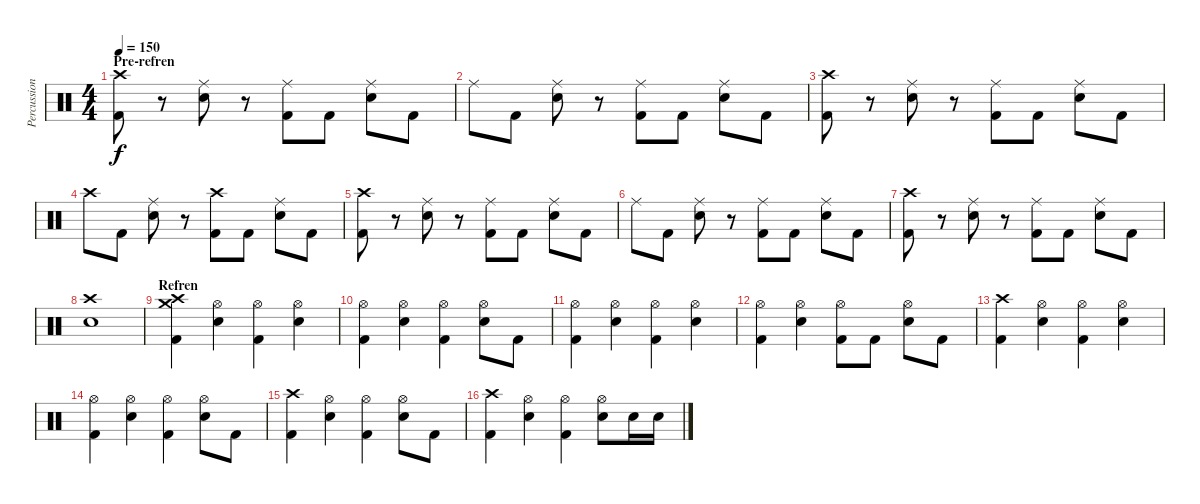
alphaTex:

\track ("Percussion" "Percussion") {instrument percussion}
\staff {score}
\articulation defaults
\ts (4 4)
\section ("" "Pre-refren")
\tempo 150
\clef neutral
\ks c
("Kick (hit) 2" "Crash high (hit)").8{dy f} r.8 ("Electric Snare (hit)" "Ride (middle)").8 r.8 ("Kick (hit) 2" "Ride (middle)").8 "Kick (hit) 2".8 ("Electric Snare (hit)" "Ride (middle)").8 "Kick (hit) 2".8 |
"Ride (middle)".8 "Kick (hit) 2".8 ("Electric Snare (hit)" "Ride (middle)").8 r.8 ("Kick (hit) 2" "Ride (middle)").8 "Kick (hit) 2".8 ("Electric Snare (hit)" "Ride (middle)").8 "Kick (hit) 2".8 |
("Kick (hit) 2" "Crash high (hit)").8 r.8 ("Electric Snare (hit)" "Ride (middle)").8 r.8 ("Kick (hit) 2" "Ride (middle)").8 "Kick (hit) 2".8 ("Electric Snare (hit)" "Ride (middle)").8 "Kick (hit) 2".8 |
"Crash high (hit)".8 "Kick (hit) 2".8 ("Electric Snare (hit)" "Ride (middle)").8 r.8 ("Kick (hit) 2" "Crash high (hit)").8 "Kick (hit) 2".8 ("Electric Snare (hit)" "Ride (middle)").8 "Kick (hit) 2".8 |
("Kick (hit) 2" "Crash high (hit)").8 r.8 ("Electric Snare (hit)" "Ride (middle)").8 r.8 ("Kick (hit) 2" "Ride (middle)").8 "Kick (hit) 2".8 ("Electric Snare (hit)" "Ride (middle)").8 "Kick (hit) 2".8 |
"Ride (middle)".8 "Kick (hit) 2".8 ("Electric Snare (hit)" "Ride (middle)").8 r.8 ("Kick (hit) 2" "Ride (middle)").8 "Kick (hit) 2".8 ("Electric Snare (hit)" "Ride (middle)").8 "Kick (hit) 2".8 |
("Kick (hit) 2" "Crash high (hit)").8 r.8 ("Electric Snare (hit)" "Ride (middle)").8 r.8 ("Kick (hit) 2" "Ride (middle)").8 "Kick (hit) 2".8 ("Electric Snare (hit)" "Ride (middle)").8 "Kick (hit) 2".8 |
("Electric Snare (hit)" "Crash high (hit)").1 |
\section ("" "Refren")
("Crash high (hit)" "Kick (hit) 2" "Crash medium (hit)").4 ("Hi-Hat (open)" "Electric Snare (hit)").4 ("Hi-Hat (open)" "Kick (hit) 2").4 ("Hi-Hat (open)" "Electric Snare (hit)").4 |
("Hi-Hat (open)" "Kick (hit) 2").4 ("Hi-Hat (open)" "Electric Snare (hit)").4 ("Hi-Hat (open)" "Kick (hit) 2").4 ("Hi-Hat (open)" "Electric Snare (hit)").8 "Kick (hit) 2".8 |
("Hi-Hat (open)" "Kick (hit) 2").4 ("Hi-Hat (open)" "Electric Snare (hit)").4 ("Hi-Hat (open)" "Kick (hit) 2").4 ("Hi-Hat (open)" "Electric Snare (hit)").4 |
("Hi-Hat (open)" "Kick (hit) 2").4 ("Hi-Hat (open)" "Electric Snare (hit)").4 ("Hi-Hat (open)" "Kick (hit) 2").8 "Kick (hit) 2".8 ("Hi-Hat (open)" "Electric Snare (hit)").8 "Kick (hit) 2".8 |
("Crash high (hit)" "Kick (hit) 2").4 ("Hi-Hat (open)" "Electric Snare (hit)").4 ("Hi-Hat (open)" "Kick (hit) 2").4 ("Hi-Hat (open)" "Electric Snare (hit)").4 |
("Hi-Hat (open)" "Kick (hit) 2").4 ("Hi-Hat (open)" "Electric Snare (hit)").4 ("Hi-Hat (open)" "Kick (hit) 2").4 ("Hi-Hat (open)" "Electric Snare (hit)").8 "Kick (hit) 2".8 |
("Crash high (hit)" "Kick (hit) 2").4 ("Hi-Hat (open)" "Electric Snare (hit)").4 ("Hi-Hat (open)" "Kick (hit) 2").4 ("Hi-Hat (open)" "Electric Snare (hit)").8 "Kick (hit) 2".8 |
("Crash high (hit)" "Kick (hit) 2").4 ("Hi-Hat (open)" "Electric Snare (hit)").4 ("Hi-Hat (open)" "Kick (hit) 2").4 ("Electric Snare (hit)" "Hi-Hat (open)").8 "Electric Snare (hit)".16 "Electric Snare (hit)".16
